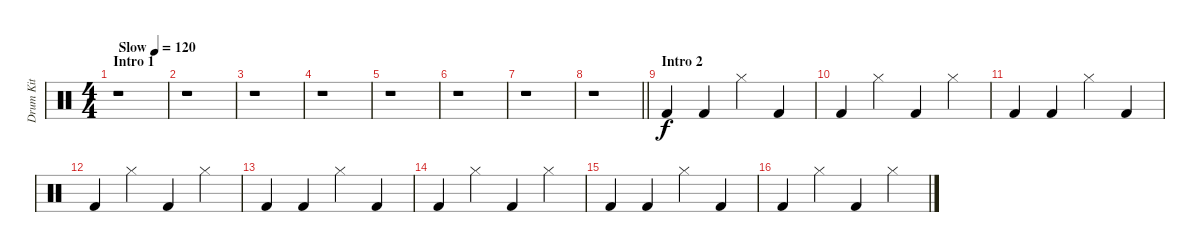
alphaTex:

\track ("Drum Kit" "Drum Kit") {instrument percussion}
\staff {score}
\articulation defaults
\ts (4 4)
\section ("" "Intro 1")
\tempo (120 "Slow")
\clef neutral
\ks c
r.1{dy f} |
r.1 |
r.1 |
r.1 |
r.1 |
r.1 |
r.1 |
\barLineRight lightlight
r.1 |
\section ("" "Intro 2")
"Kick (hit) 2".4 "Kick (hit) 2".4 "Hi-Hat (closed)".4 "Kick (hit) 2".4 |
"Kick (hit) 2".4 "Hi-Hat (closed)".4 "Kick (hit) 2".4 "Hi-Hat (closed)".4 |
"Kick (hit) 2".4 "Kick (hit) 2".4 "Hi-Hat (closed)".4 "Kick (hit) 2".4 |
"Kick (hit) 2".4 "Hi-Hat (closed)".4 "Kick (hit) 2".4 "Hi-Hat (closed)".4 |
"Kick (hit) 2".4 "Kick (hit) 2".4 "Hi-Hat (closed)".4 "Kick (hit) 2".4 |
"Kick (hit) 2".4 "Hi-Hat (closed)".4 "Kick (hit) 2".4 "Hi-Hat (closed)".4 |
"Kick (hit) 2".4 "Kick (hit) 2".4 "Hi-Hat (closed)".4 "Kick (hit) 2".4 |
"Kick (hit) 2".4 "Hi-Hat (closed)".4 "Kick (hit) 2".4 "Hi-Hat (closed)".4
